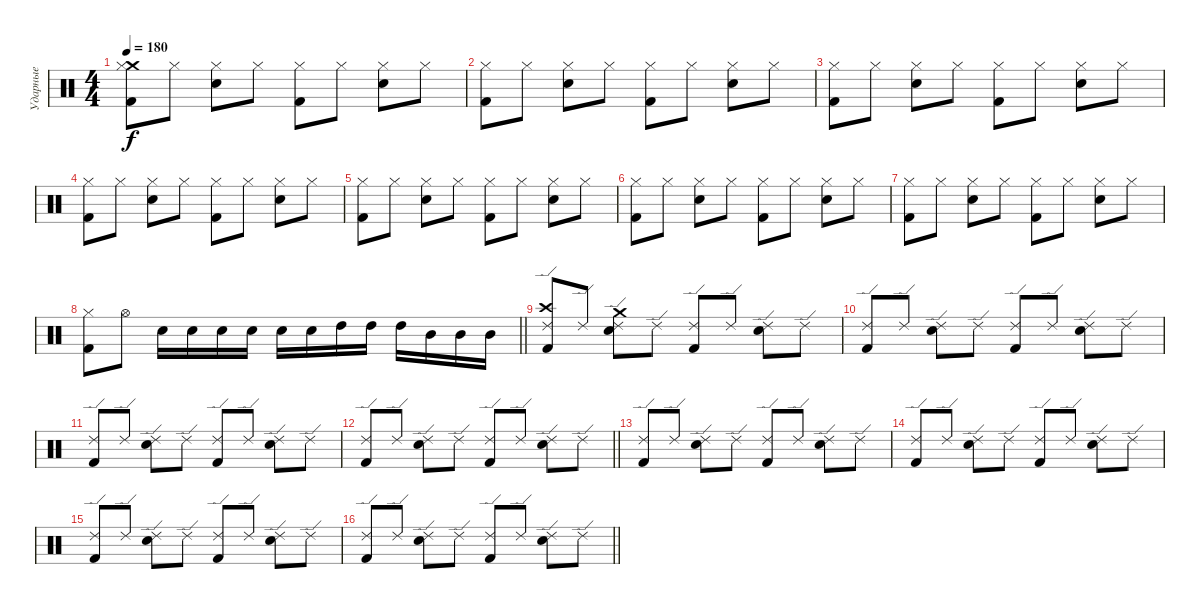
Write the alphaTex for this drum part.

\track ("Ударные" "Ударные") {instrument percussion}
\staff {score}
\articulation defaults
\ts (4 4)
\tempo 180
\clef neutral
\ks c
("Crash medium (hit)" "Hi-Hat (closed)" "Kick (hit) 2").8{dy f} "Hi-Hat (closed)".8 ("Hi-Hat (closed)" "Electric Snare (hit)").8 "Hi-Hat (closed)".8 ("Hi-Hat (closed)" "Kick (hit) 2").8 "Hi-Hat (closed)".8 ("Hi-Hat (closed)" "Electric Snare (hit)").8 "Hi-Hat (closed)".8 |
("Hi-Hat (closed)" "Kick (hit) 2").8 "Hi-Hat (closed)".8 ("Hi-Hat (closed)" "Electric Snare (hit)").8 "Hi-Hat (closed)".8 ("Hi-Hat (closed)" "Kick (hit) 2").8 "Hi-Hat (closed)".8 ("Hi-Hat (closed)" "Electric Snare (hit)").8 "Hi-Hat (closed)".8 |
("Hi-Hat (closed)" "Kick (hit) 2").8 "Hi-Hat (closed)".8 ("Hi-Hat (closed)" "Electric Snare (hit)").8 "Hi-Hat (closed)".8 ("Hi-Hat (closed)" "Kick (hit) 2").8 "Hi-Hat (closed)".8 ("Hi-Hat (closed)" "Electric Snare (hit)").8 "Hi-Hat (closed)".8 |
("Hi-Hat (closed)" "Kick (hit) 2").8 "Hi-Hat (closed)".8 ("Hi-Hat (closed)" "Electric Snare (hit)").8 "Hi-Hat (closed)".8 ("Hi-Hat (closed)" "Kick (hit) 2").8 "Hi-Hat (closed)".8 ("Hi-Hat (closed)" "Electric Snare (hit)").8 "Hi-Hat (closed)".8 |
("Hi-Hat (closed)" "Kick (hit) 2").8 "Hi-Hat (closed)".8 ("Hi-Hat (closed)" "Electric Snare (hit)").8 "Hi-Hat (closed)".8 ("Hi-Hat (closed)" "Kick (hit) 2").8 "Hi-Hat (closed)".8 ("Hi-Hat (closed)" "Electric Snare (hit)").8 "Hi-Hat (closed)".8 |
("Hi-Hat (closed)" "Kick (hit) 2").8 "Hi-Hat (closed)".8 ("Hi-Hat (closed)" "Electric Snare (hit)").8 "Hi-Hat (closed)".8 ("Hi-Hat (closed)" "Kick (hit) 2").8 "Hi-Hat (closed)".8 ("Hi-Hat (closed)" "Electric Snare (hit)").8 "Hi-Hat (closed)".8 |
("Hi-Hat (closed)" "Kick (hit) 2").8 "Hi-Hat (closed)".8 ("Hi-Hat (closed)" "Electric Snare (hit)").8 "Hi-Hat (closed)".8 ("Hi-Hat (closed)" "Kick (hit) 2").8 "Hi-Hat (closed)".8 ("Hi-Hat (closed)" "Electric Snare (hit)").8 "Hi-Hat (closed)".8 |
\barLineRight lightlight
("Hi-Hat (closed)" "Kick (hit) 2").8 "Hi-Hat (open)".8 "Electric Snare (hit)".16 "Electric Snare (hit)".16 "Electric Snare (hit)".16 "Electric Snare (hit)".16 "Electric Snare (hit)".16 "Electric Snare (hit)".16 "High Tom (hit)".16 "High Tom (hit)".16 "High Tom (hit)".16 "Mid Tom (hit)".16 "Mid Tom (hit)".16 "Mid Tom (hit)".16 |
("Crash high (hit)" "Ride (edge) 2" "Kick (hit) 2").8 "Ride (edge) 2".8 ("Crash medium (hit)" "Ride (edge) 2" "Electric Snare (hit)").8 "Ride (edge) 2".8 ("Ride (edge) 2" "Kick (hit) 2").8 "Ride (edge) 2".8 ("Ride (edge) 2" "Electric Snare (hit)").8 "Ride (edge) 2".8 |
("Ride (edge) 2" "Kick (hit) 2").8 "Ride (edge) 2".8 ("Ride (edge) 2" "Electric Snare (hit)").8 "Ride (edge) 2".8 ("Ride (edge) 2" "Kick (hit) 2").8 "Ride (edge) 2".8 ("Ride (edge) 2" "Electric Snare (hit)").8 "Ride (edge) 2".8 |
("Ride (edge) 2" "Kick (hit) 2").8 "Ride (edge) 2".8 ("Ride (edge) 2" "Electric Snare (hit)").8 "Ride (edge) 2".8 ("Ride (edge) 2" "Kick (hit) 2").8 "Ride (edge) 2".8 ("Ride (edge) 2" "Electric Snare (hit)").8 "Ride (edge) 2".8 |
\barLineRight lightlight
("Ride (edge) 2" "Kick (hit) 2").8 "Ride (edge) 2".8 ("Ride (edge) 2" "Electric Snare (hit)").8 "Ride (edge) 2".8 ("Ride (edge) 2" "Kick (hit) 2").8 "Ride (edge) 2".8 ("Ride (edge) 2" "Electric Snare (hit)").8 "Ride (edge) 2".8 |
("Ride (edge) 2" "Kick (hit) 2").8 "Ride (edge) 2".8 ("Ride (edge) 2" "Electric Snare (hit)").8 "Ride (edge) 2".8 ("Ride (edge) 2" "Kick (hit) 2").8 "Ride (edge) 2".8 ("Ride (edge) 2" "Electric Snare (hit)").8 "Ride (edge) 2".8 |
("Ride (edge) 2" "Kick (hit) 2").8 "Ride (edge) 2".8 ("Ride (edge) 2" "Electric Snare (hit)").8 "Ride (edge) 2".8 ("Ride (edge) 2" "Kick (hit) 2").8 "Ride (edge) 2".8 ("Ride (edge) 2" "Electric Snare (hit)").8 "Ride (edge) 2".8 |
("Ride (edge) 2" "Kick (hit) 2").8 "Ride (edge) 2".8 ("Ride (edge) 2" "Electric Snare (hit)").8 "Ride (edge) 2".8 ("Ride (edge) 2" "Kick (hit) 2").8 "Ride (edge) 2".8 ("Ride (edge) 2" "Electric Snare (hit)").8 "Ride (edge) 2".8 |
\barLineRight lightlight
("Ride (edge) 2" "Kick (hit) 2").8 "Ride (edge) 2".8 ("Ride (edge) 2" "Electric Snare (hit)").8 "Ride (edge) 2".8 ("Ride (edge) 2" "Kick (hit) 2").8 "Ride (edge) 2".8 ("Ride (edge) 2" "Electric Snare (hit)").8 "Ride (edge) 2".8
